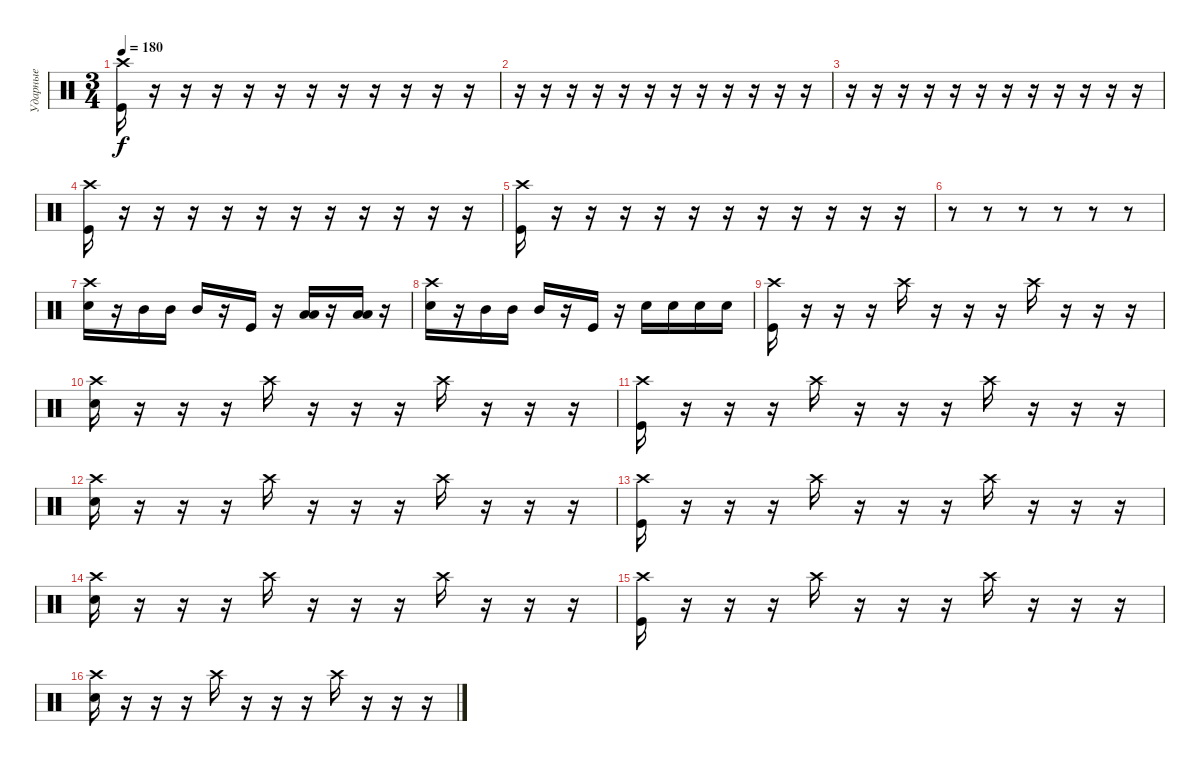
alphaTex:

\track ("Ударные" "Ударные") {instrument percussion}
\staff {score}
\articulation defaults
\ts (3 4)
\tempo 180
\clef neutral
\ks c
("Kick (hit)" "Crash high (hit)").16{dy f} r.16 r.16 r.16 r.16 r.16 r.16 r.16 r.16 r.16 r.16 r.16 |
r.16 r.16 r.16 r.16 r.16 r.16 r.16 r.16 r.16 r.16 r.16 r.16 |
r.16 r.16 r.16 r.16 r.16 r.16 r.16 r.16 r.16 r.16 r.16 r.16 |
("Crash high (hit)" "Kick (hit)").16 r.16 r.16 r.16 r.16 r.16 r.16 r.16 r.16 r.16 r.16 r.16 |
("Crash high (hit)" "Kick (hit)").16 r.16 r.16 r.16 r.16 r.16 r.16 r.16 r.16 r.16 r.16 r.16 |
r.8 r.8 r.8 r.8 r.8 r.8 |
("Crash high (hit)" "Electric Snare (hit)").16 r.16 "Mid Tom (hit)".16 "Mid Tom (hit)".16 "Mid Tom (hit)".16 r.16 "Kick (hit)".16 r.16 ("Low Floor Tom (hit)" "Low Tom (hit)").16 r.16 ("Low Floor Tom (hit)" "Low Tom (hit)").16 r.16 |
("Crash high (hit)" "Electric Snare (hit)").16 r.16 "Mid Tom (hit)".16 "Mid Tom (hit)".16 "Mid Tom (hit)".16 r.16 "Kick (hit)".16 r.16 "Electric Snare (hit)".16 "Electric Snare (hit)".16 "Electric Snare (hit)".16 "Electric Snare (hit)".16 |
("Crash high (hit)" "Kick (hit)").16 r.16 r.16 r.16 "Crash high (hit)".16 r.16 r.16 r.16 "Crash high (hit)".16 r.16 r.16 r.16 |
("Crash high (hit)" "Electric Snare (hit)").16 r.16 r.16 r.16 "Crash high (hit)".16 r.16 r.16 r.16 "Crash high (hit)".16 r.16 r.16 r.16 |
("Crash high (hit)" "Kick (hit)").16 r.16 r.16 r.16 "Crash high (hit)".16 r.16 r.16 r.16 "Crash high (hit)".16 r.16 r.16 r.16 |
("Crash high (hit)" "Electric Snare (hit)").16 r.16 r.16 r.16 "Crash high (hit)".16 r.16 r.16 r.16 "Crash high (hit)".16 r.16 r.16 r.16 |
("Crash high (hit)" "Kick (hit)").16 r.16 r.16 r.16 "Crash high (hit)".16 r.16 r.16 r.16 "Crash high (hit)".16 r.16 r.16 r.16 |
("Crash high (hit)" "Electric Snare (hit)").16 r.16 r.16 r.16 "Crash high (hit)".16 r.16 r.16 r.16 "Crash high (hit)".16 r.16 r.16 r.16 |
("Crash high (hit)" "Kick (hit)").16 r.16 r.16 r.16 "Crash high (hit)".16 r.16 r.16 r.16 "Crash high (hit)".16 r.16 r.16 r.16 |
("Crash high (hit)" "Electric Snare (hit)").16 r.16 r.16 r.16 "Crash high (hit)".16 r.16 r.16 r.16 "Crash high (hit)".16 r.16 r.16 r.16
